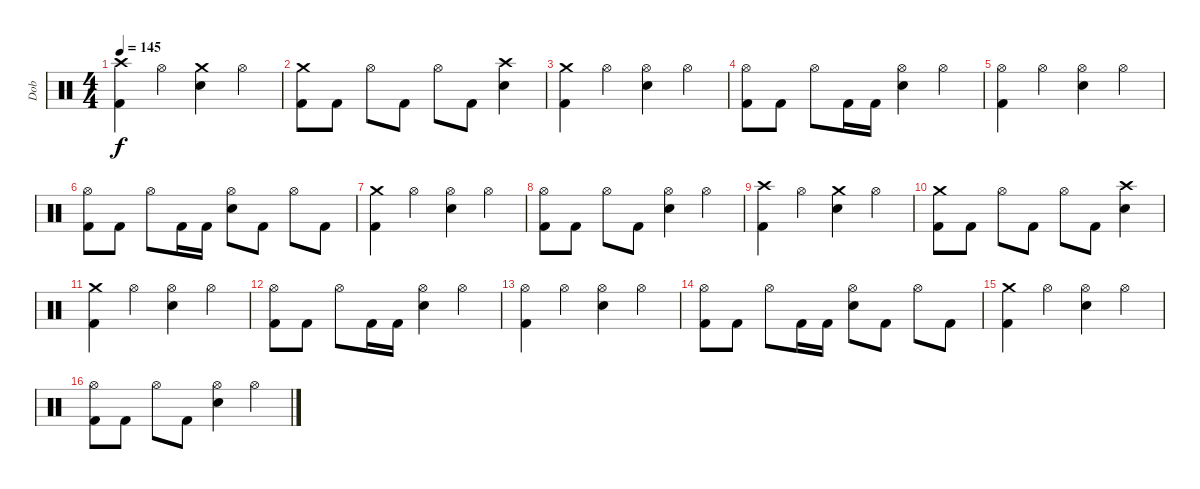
\track ("Dob" "Dob") {instrument percussion}
\staff {score}
\articulation defaults
\ts (4 4)
\tempo 145
\clef neutral
\ks c
("Crash high (hit)" "Kick (hit) 2").4{dy f} "Hi-Hat (open)".4 ("Crash medium (hit)" "Electric Snare (hit)").4 "Hi-Hat (open)".4 |
("Crash medium (hit)" "Kick (hit) 2").8 "Kick (hit) 2".8 "Hi-Hat (open)".8 "Kick (hit) 2".8 "Hi-Hat (open)".8 "Kick (hit) 2".8 ("Crash high (hit)" "Electric Snare (hit)").4 |
("Crash medium (hit)" "Kick (hit) 2").4 "Hi-Hat (open)".4 ("Hi-Hat (open)" "Electric Snare (hit)").4 "Hi-Hat (open)".4 |
("Hi-Hat (open)" "Kick (hit) 2").8 "Kick (hit) 2".8 "Hi-Hat (open)".8 "Kick (hit) 2".16 "Kick (hit) 2".16 ("Hi-Hat (open)" "Electric Snare (hit)").4 "Hi-Hat (open)".4 |
("Hi-Hat (open)" "Kick (hit) 2").4 "Hi-Hat (open)".4 ("Hi-Hat (open)" "Electric Snare (hit)").4 "Hi-Hat (open)".4 |
("Hi-Hat (open)" "Kick (hit) 2").8 "Kick (hit) 2".8 "Hi-Hat (open)".8 "Kick (hit) 2".16 "Kick (hit) 2".16 ("Hi-Hat (open)" "Electric Snare (hit)").8 "Kick (hit) 2".8 "Hi-Hat (open)".8 "Kick (hit) 2".8 |
("Crash medium (hit)" "Kick (hit) 2").4 "Hi-Hat (open)".4 ("Hi-Hat (open)" "Electric Snare (hit)").4 "Hi-Hat (open)".4 |
("Hi-Hat (open)" "Kick (hit) 2").8 "Kick (hit) 2".8 "Hi-Hat (open)".8 "Kick (hit) 2".8 ("Hi-Hat (open)" "Electric Snare (hit)").4 "Hi-Hat (open)".4 |
("Crash high (hit)" "Kick (hit) 2").4 "Hi-Hat (open)".4 ("Crash medium (hit)" "Electric Snare (hit)").4 "Hi-Hat (open)".4 |
("Crash medium (hit)" "Kick (hit) 2").8 "Kick (hit) 2".8 "Hi-Hat (open)".8 "Kick (hit) 2".8 "Hi-Hat (open)".8 "Kick (hit) 2".8 ("Crash high (hit)" "Electric Snare (hit)").4 |
("Crash medium (hit)" "Kick (hit) 2").4 "Hi-Hat (open)".4 ("Hi-Hat (open)" "Electric Snare (hit)").4 "Hi-Hat (open)".4 |
("Hi-Hat (open)" "Kick (hit) 2").8 "Kick (hit) 2".8 "Hi-Hat (open)".8 "Kick (hit) 2".16 "Kick (hit) 2".16 ("Hi-Hat (open)" "Electric Snare (hit)").4 "Hi-Hat (open)".4 |
("Hi-Hat (open)" "Kick (hit) 2").4 "Hi-Hat (open)".4 ("Hi-Hat (open)" "Electric Snare (hit)").4 "Hi-Hat (open)".4 |
("Hi-Hat (open)" "Kick (hit) 2").8 "Kick (hit) 2".8 "Hi-Hat (open)".8 "Kick (hit) 2".16 "Kick (hit) 2".16 ("Hi-Hat (open)" "Electric Snare (hit)").8 "Kick (hit) 2".8 "Hi-Hat (open)".8 "Kick (hit) 2".8 |
("Crash medium (hit)" "Kick (hit) 2").4 "Hi-Hat (open)".4 ("Hi-Hat (open)" "Electric Snare (hit)").4 "Hi-Hat (open)".4 |
("Hi-Hat (open)" "Kick (hit) 2").8 "Kick (hit) 2".8 "Hi-Hat (open)".8 "Kick (hit) 2".8 ("Hi-Hat (open)" "Electric Snare (hit)").4 "Hi-Hat (open)".4
